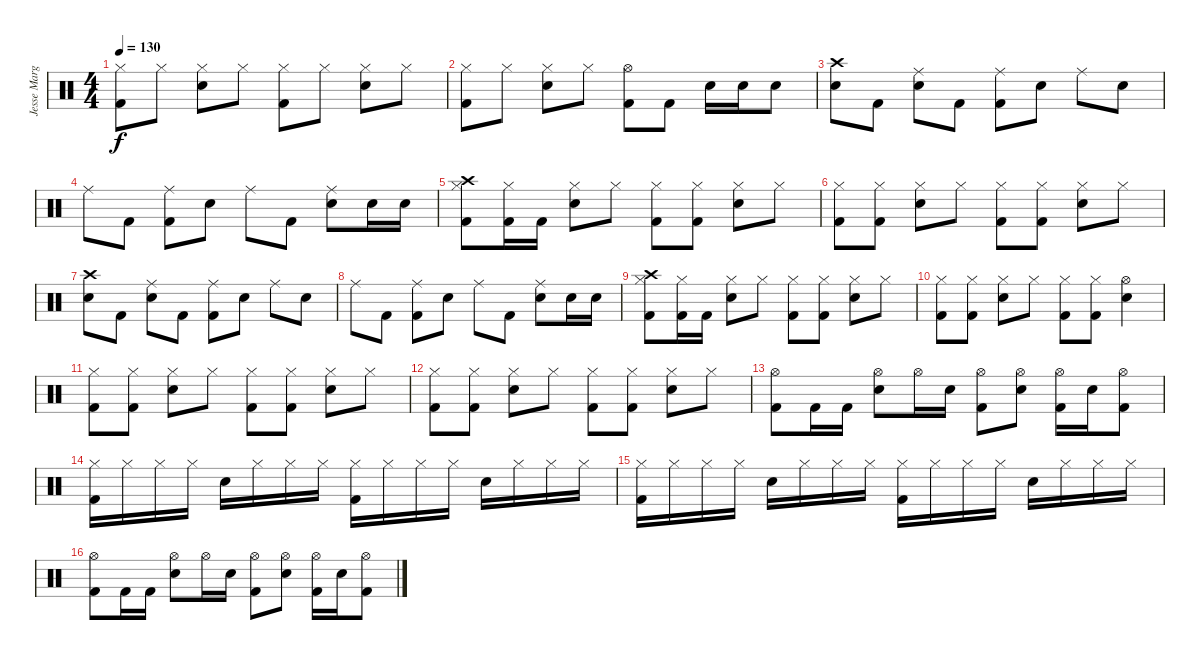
\track ("Jesse Margera" "Jesse Marg") {instrument percussion}
\staff {score}
\articulation defaults
\ts (4 4)
\tempo 130
\clef neutral
\ks c
("Hi-Hat (closed)" "Kick (hit) 2").8{dy f} "Hi-Hat (closed)".8 ("Hi-Hat (closed)" "Electric Snare (hit)").8 "Hi-Hat (closed)".8 ("Hi-Hat (closed)" "Kick (hit) 2").8 "Hi-Hat (closed)".8 ("Hi-Hat (closed)" "Electric Snare (hit)").8 "Hi-Hat (closed)".8 |
("Hi-Hat (closed)" "Kick (hit) 2").8 "Hi-Hat (closed)".8 ("Hi-Hat (closed)" "Electric Snare (hit)").8 "Hi-Hat (closed)".8 ("Hi-Hat (open)" "Kick (hit) 2").8 "Kick (hit) 2".8 "Electric Snare (hit)".16 "Electric Snare (hit)".16 "Electric Snare (hit)".8 |
("Crash high (hit)" "Electric Snare (hit)").8 "Kick (hit) 2".8 ("Ride (middle)" "Electric Snare (hit)").8 "Kick (hit) 2".8 ("Ride (middle)" "Kick (hit) 2").8 "Electric Snare (hit)".8 "Ride (middle)".8 "Electric Snare (hit)".8 |
"Ride (middle)".8 "Kick (hit) 2".8 ("Ride (middle)" "Kick (hit) 2").8 "Electric Snare (hit)".8 "Ride (middle)".8 "Kick (hit) 2".8 ("Ride (middle)" "Electric Snare (hit)").8 "Electric Snare (hit)".16 "Electric Snare (hit)".16 |
("Hi-Hat (closed)" "Crash high (hit)" "Kick (hit) 2").8 ("Hi-Hat (closed)" "Kick (hit) 2").16 "Kick (hit) 2".16 ("Hi-Hat (closed)" "Electric Snare (hit)").8 "Hi-Hat (closed)".8 ("Hi-Hat (closed)" "Kick (hit) 2").8 ("Hi-Hat (closed)" "Kick (hit) 2").8 ("Hi-Hat (closed)" "Electric Snare (hit)").8 "Hi-Hat (closed)".8 |
("Hi-Hat (closed)" "Kick (hit) 2").8 ("Hi-Hat (closed)" "Kick (hit) 2").8 ("Hi-Hat (closed)" "Electric Snare (hit)").8 "Hi-Hat (closed)".8 ("Hi-Hat (closed)" "Kick (hit) 2").8 ("Hi-Hat (closed)" "Kick (hit) 2").8 ("Hi-Hat (closed)" "Electric Snare (hit)").8 "Hi-Hat (closed)".8 |
("Crash high (hit)" "Electric Snare (hit)").8 "Kick (hit) 2".8 ("Ride (middle)" "Electric Snare (hit)").8 "Kick (hit) 2".8 ("Ride (middle)" "Kick (hit) 2").8 "Electric Snare (hit)".8 "Ride (middle)".8 "Electric Snare (hit)".8 |
"Ride (middle)".8 "Kick (hit) 2".8 ("Ride (middle)" "Kick (hit) 2").8 "Electric Snare (hit)".8 "Ride (middle)".8 "Kick (hit) 2".8 ("Ride (middle)" "Electric Snare (hit)").8 "Electric Snare (hit)".16 "Electric Snare (hit)".16 |
("Hi-Hat (closed)" "Crash high (hit)" "Kick (hit) 2").8 ("Hi-Hat (closed)" "Kick (hit) 2").16 "Kick (hit) 2".16 ("Hi-Hat (closed)" "Electric Snare (hit)").8 "Hi-Hat (closed)".8 ("Hi-Hat (closed)" "Kick (hit) 2").8 ("Hi-Hat (closed)" "Kick (hit) 2").8 ("Hi-Hat (closed)" "Electric Snare (hit)").8 "Hi-Hat (closed)".8 |
("Hi-Hat (closed)" "Kick (hit) 2").8 ("Hi-Hat (closed)" "Kick (hit) 2").8 ("Hi-Hat (closed)" "Electric Snare (hit)").8 "Hi-Hat (closed)".8 ("Hi-Hat (closed)" "Kick (hit) 2").8 ("Hi-Hat (closed)" "Kick (hit) 2").8 ("Hi-Hat (open)" "Electric Snare (hit)").4 |
("Hi-Hat (closed)" "Kick (hit) 2").8 ("Hi-Hat (closed)" "Kick (hit) 2").8 ("Hi-Hat (closed)" "Electric Snare (hit)").8 "Hi-Hat (closed)".8 ("Hi-Hat (closed)" "Kick (hit) 2").8 ("Hi-Hat (closed)" "Kick (hit) 2").8 ("Hi-Hat (closed)" "Electric Snare (hit)").8 "Hi-Hat (closed)".8 |
("Hi-Hat (closed)" "Kick (hit) 2").8 ("Hi-Hat (closed)" "Kick (hit) 2").8 ("Hi-Hat (closed)" "Electric Snare (hit)").8 "Hi-Hat (closed)".8 ("Hi-Hat (closed)" "Kick (hit) 2").8 ("Hi-Hat (closed)" "Kick (hit) 2").8 ("Hi-Hat (closed)" "Electric Snare (hit)").8 "Hi-Hat (closed)".8 |
("Hi-Hat (open)" "Kick (hit) 2").8 "Kick (hit) 2".16 "Kick (hit) 2".16 ("Hi-Hat (open)" "Electric Snare (hit)").8 "Hi-Hat (open)".16 "Electric Snare (hit)".16 ("Hi-Hat (open)" "Kick (hit) 2").8 ("Hi-Hat (open)" "Electric Snare (hit)").8 ("Hi-Hat (open)" "Kick (hit) 2").16 "Electric Snare (hit)".16 ("Hi-Hat (open)" "Kick (hit) 2").8 |
("Hi-Hat (closed)" "Kick (hit) 2").16 "Hi-Hat (closed)".16 "Hi-Hat (closed)".16 "Hi-Hat (closed)".16 "Electric Snare (hit)".16 "Hi-Hat (closed)".16 "Hi-Hat (closed)".16 "Hi-Hat (closed)".16 ("Hi-Hat (closed)" "Kick (hit) 2").16 "Hi-Hat (closed)".16 "Hi-Hat (closed)".16 "Hi-Hat (closed)".16 "Electric Snare (hit)".16 "Hi-Hat (closed)".16 "Hi-Hat (closed)".16 "Hi-Hat (closed)".16 |
("Hi-Hat (closed)" "Kick (hit) 2").16 "Hi-Hat (closed)".16 "Hi-Hat (closed)".16 "Hi-Hat (closed)".16 "Electric Snare (hit)".16 "Hi-Hat (closed)".16 "Hi-Hat (closed)".16 "Hi-Hat (closed)".16 ("Hi-Hat (closed)" "Kick (hit) 2").16 "Hi-Hat (closed)".16 "Hi-Hat (closed)".16 "Hi-Hat (closed)".16 "Electric Snare (hit)".16 "Hi-Hat (closed)".16 "Hi-Hat (closed)".16 "Hi-Hat (closed)".16 |
("Hi-Hat (open)" "Kick (hit) 2").8 "Kick (hit) 2".16 "Kick (hit) 2".16 ("Hi-Hat (open)" "Electric Snare (hit)").8 "Hi-Hat (open)".16 "Electric Snare (hit)".16 ("Hi-Hat (open)" "Kick (hit) 2").8 ("Hi-Hat (open)" "Electric Snare (hit)").8 ("Hi-Hat (open)" "Kick (hit) 2").16 "Electric Snare (hit)".16 ("Hi-Hat (open)" "Kick (hit) 2").8
